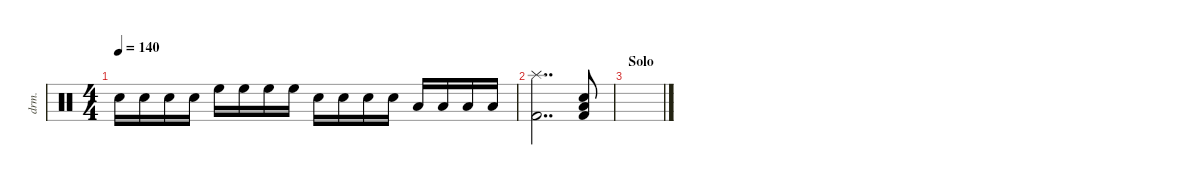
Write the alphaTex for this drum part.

\defaultSystemsLayout 4
\hideDynamics
\bracketExtendMode nobrackets
\otherSystemsTrackNameOrientation horizontal
\track ("Drumkit" "drm.") {instrument percussion}
\staff {score}
\articulation defaults
\ts (4 4)
\tempo 140
\clef neutral
\ks c "Snare (hit) 2".16{dy mf beam Down} "Snare (hit) 2".16{beam Down} "Snare (hit) 2".16{beam Down} "Snare (hit) 2".16{beam Down} "High Floor Tom (hit)".16{beam Down} "High Floor Tom (hit)".16{beam Down} "High Floor Tom (hit)".16{beam Down} "High Floor Tom (hit)".16{beam Down} "Snare (hit) 2".16{beam Down} "Snare (hit) 2".16{beam Down} "Snare (hit) 2".16{beam Down} "Snare (hit) 2".16{beam Down} "Low Tom (hit)".16{beam Up} "Low Tom (hit)".16{beam Up} "Low Tom (hit)".16{beam Up} "Low Tom (hit)".16{beam Up}
|
("Kick (hit) 2" "Splash (hit)").2{dd beam Down} ("Snare (hit) 2" "Kick (hit) 2" "Low Tom (hit)").8{beam Up} |
\section ("" "Solo")
